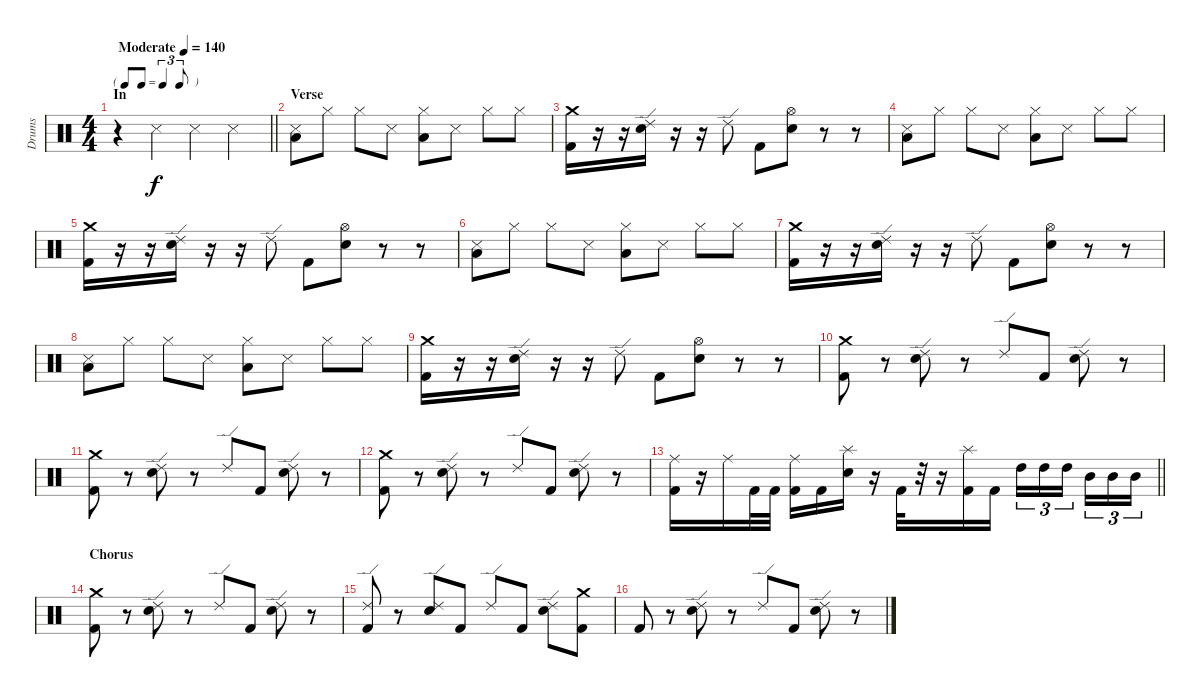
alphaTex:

\track ("Drums" "Drums") {instrument percussion}
\staff {score}
\articulation defaults
\ts (4 4)
\tf triplet8th
\section ("" "In")
\tempo (140 "Moderate")
\clef neutral
\barLineRight lightlight
\ks c
r.4{dy f} "Snare (side stick) 3".4 "Snare (side stick) 3".4 "Snare (side stick) 3".4 |
\section ("" "Verse")
("Low Tom (hit)" "Snare (side stick) 3").8 "Hi-Hat (closed)".8 "Hi-Hat (closed)".8 "Snare (side stick) 3".8 ("Low Tom (hit)" "Hi-Hat (closed)").8 "Snare (side stick) 3".8 "Hi-Hat (closed)".8 "Hi-Hat (closed)".8 |
("Crash medium (hit)" "Kick (hit) 2").16 r.16 r.16 ("Ride (edge) 2" "Electric Snare (hit)").16 r.16 r.16 "Ride (edge) 2".8 "Kick (hit) 2".8 ("Hi-Hat (open)" "Electric Snare (hit)").8 r.8 r.8 |
("Low Tom (hit)" "Snare (side stick) 3").8 "Hi-Hat (closed)".8 "Hi-Hat (closed)".8 "Snare (side stick) 3".8 ("Low Tom (hit)" "Hi-Hat (closed)").8 "Snare (side stick) 3".8 "Hi-Hat (closed)".8 "Hi-Hat (closed)".8 |
("Crash medium (hit)" "Kick (hit) 2").16 r.16 r.16 ("Ride (edge) 2" "Electric Snare (hit)").16 r.16 r.16 "Ride (edge) 2".8 "Kick (hit) 2".8 ("Hi-Hat (open)" "Electric Snare (hit)").8 r.8 r.8 |
("Low Tom (hit)" "Snare (side stick) 3").8 "Hi-Hat (closed)".8 "Hi-Hat (closed)".8 "Snare (side stick) 3".8 ("Low Tom (hit)" "Hi-Hat (closed)").8 "Snare (side stick) 3".8 "Hi-Hat (closed)".8 "Hi-Hat (closed)".8 |
("Crash medium (hit)" "Kick (hit) 2").16 r.16 r.16 ("Ride (edge) 2" "Electric Snare (hit)").16 r.16 r.16 "Ride (edge) 2".8 "Kick (hit) 2".8 ("Hi-Hat (open)" "Electric Snare (hit)").8 r.8 r.8 |
("Low Tom (hit)" "Snare (side stick) 3").8 "Hi-Hat (closed)".8 "Hi-Hat (closed)".8 "Snare (side stick) 3".8 ("Low Tom (hit)" "Hi-Hat (closed)").8 "Snare (side stick) 3".8 "Hi-Hat (closed)".8 "Hi-Hat (closed)".8 |
("Crash medium (hit)" "Kick (hit) 2").16 r.16 r.16 ("Ride (edge) 2" "Electric Snare (hit)").16 r.16 r.16 "Ride (edge) 2".8 "Kick (hit) 2".8 ("Hi-Hat (open)" "Electric Snare (hit)").8 r.8 r.8 |
("Crash medium (hit)" "Kick (hit) 2").8 r.8 ("Ride (edge) 2" "Electric Snare (hit)").8 r.8 "Ride (edge) 2".8 "Kick (hit) 2".8 ("Ride (edge) 2" "Electric Snare (hit)").8 r.8 |
("Crash medium (hit)" "Kick (hit) 2").8 r.8 ("Ride (edge) 2" "Electric Snare (hit)").8 r.8 "Ride (edge) 2".8 "Kick (hit) 2".8 ("Ride (edge) 2" "Electric Snare (hit)").8 r.8 |
("Crash medium (hit)" "Kick (hit) 2").8 r.8 ("Ride (edge) 2" "Electric Snare (hit)").8 r.8 "Ride (edge) 2".8 "Kick (hit) 2".8 ("Ride (edge) 2" "Electric Snare (hit)").8 r.8 |
\barLineRight lightlight
("Ride (middle)" "Kick (hit) 2").16 r.16 "Ride (middle)".16 "Kick (hit) 2".32 "Kick (hit) 2".32 ("Ride (middle)" "Kick (hit) 2").16 "Kick (hit) 2".16 ("Splash (hit)" "Electric Snare (hit)").16 r.16 "Kick (hit) 2".32 r.32 r.16 ("Splash (hit)" "Kick (hit) 2").16 "Kick (hit) 2".16 "High Tom (hit)".16{tu (3 2)} "High Tom (hit)".16{tu (3 2)} "High Tom (hit)".16{tu (3 2) beam splitsecondary} "Mid Tom (hit)".16{tu (3 2)} "Mid Tom (hit)".16{tu (3 2)} "Mid Tom (hit)".16{tu (3 2)} |
\section ("" "Chorus")
("Crash medium (hit)" "Kick (hit) 2").8 r.8 ("Ride (edge) 2" "Electric Snare (hit)").8 r.8 "Ride (edge) 2".8 "Kick (hit) 2".8 ("Ride (edge) 2" "Electric Snare (hit)").8 r.8 |
("Ride (edge) 2" "Kick (hit) 2").8 r.8 ("Ride (edge) 2" "Electric Snare (hit)").8 "Kick (hit) 2".8 "Ride (edge) 2".8 "Kick (hit) 2".8 ("Ride (edge) 2" "Electric Snare (hit)").8 ("Crash medium (hit)" "Kick (hit) 2").8 |
"Kick (hit) 2".8 r.8 ("Ride (edge) 2" "Electric Snare (hit)").8 r.8 "Ride (edge) 2".8 "Kick (hit) 2".8 ("Ride (edge) 2" "Electric Snare (hit)").8 r.8
